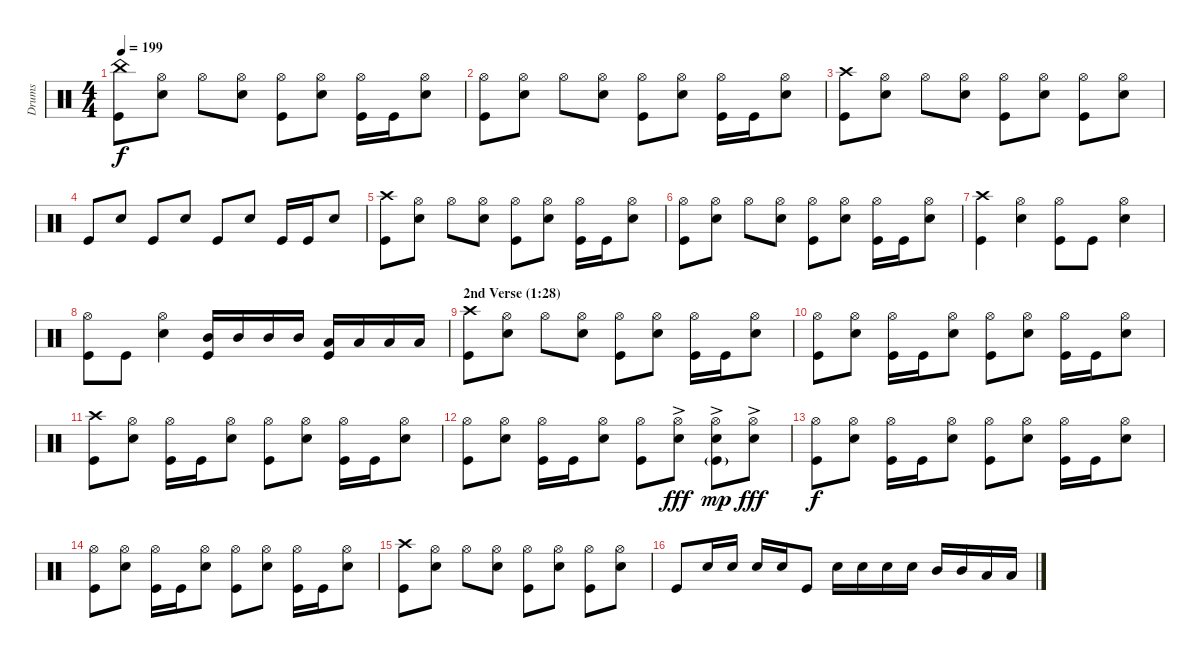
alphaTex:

\track ("Drums" "Drums") {instrument percussion}
\staff {score}
\articulation defaults
\ts (4 4)
\tempo 199
\clef neutral
\ks c
("China (hit)" "Kick (hit)").8{dy f} ("Hi-Hat (open)" "Snare (hit) 2").8 "Hi-Hat (open)".8 ("Hi-Hat (open)" "Snare (hit) 2").8 ("Hi-Hat (open)" "Kick (hit)").8 ("Hi-Hat (open)" "Snare (hit) 2").8 ("Hi-Hat (open)" "Kick (hit)").16 "Kick (hit)".16 ("Hi-Hat (open)" "Snare (hit) 2").8 |
("Hi-Hat (open)" "Kick (hit)").8 ("Hi-Hat (open)" "Snare (hit) 2").8 "Hi-Hat (open)".8 ("Hi-Hat (open)" "Snare (hit) 2").8 ("Hi-Hat (open)" "Kick (hit)").8 ("Hi-Hat (open)" "Snare (hit) 2").8 ("Hi-Hat (open)" "Kick (hit)").16 "Kick (hit)".16 ("Hi-Hat (open)" "Snare (hit) 2").8 |
("Crash high (hit)" "Kick (hit)").8 ("Hi-Hat (open)" "Snare (hit) 2").8 "Hi-Hat (open)".8 ("Hi-Hat (open)" "Snare (hit) 2").8 ("Hi-Hat (open)" "Kick (hit)").8 ("Hi-Hat (open)" "Snare (hit) 2").8 ("Hi-Hat (open)" "Kick (hit)").8 ("Hi-Hat (open)" "Snare (hit) 2").8 |
"Kick (hit)".8 "Snare (hit) 2".8 "Kick (hit)".8 "Snare (hit) 2".8 "Kick (hit)".8 "Snare (hit) 2".8 "Kick (hit)".16 "Kick (hit)".16 "Snare (hit) 2".8 |
("Crash high (hit)" "Kick (hit)").8 ("Hi-Hat (open)" "Snare (hit) 2").8 "Hi-Hat (open)".8 ("Hi-Hat (open)" "Snare (hit) 2").8 ("Hi-Hat (open)" "Kick (hit)").8 ("Hi-Hat (open)" "Snare (hit) 2").8 ("Hi-Hat (open)" "Kick (hit)").16 "Kick (hit)".16 ("Hi-Hat (open)" "Snare (hit) 2").8 |
("Hi-Hat (open)" "Kick (hit)").8 ("Hi-Hat (open)" "Snare (hit) 2").8 "Hi-Hat (open)".8 ("Hi-Hat (open)" "Snare (hit) 2").8 ("Hi-Hat (open)" "Kick (hit)").8 ("Hi-Hat (open)" "Snare (hit) 2").8 ("Hi-Hat (open)" "Kick (hit)").16 "Kick (hit)".16 ("Hi-Hat (open)" "Snare (hit) 2").8 |
("Crash high (hit)" "Kick (hit)").4 ("Hi-Hat (open)" "Snare (hit) 2").4 ("Hi-Hat (open)" "Kick (hit)").8 "Kick (hit)".8 ("Hi-Hat (open)" "Snare (hit) 2").4 |
("Hi-Hat (open)" "Kick (hit)").8 "Kick (hit)".8 ("Hi-Hat (open)" "Snare (hit) 2").4 ("Mid Tom (hit)" "Kick (hit)").16 "Mid Tom (hit)".16 "Mid Tom (hit)".16 "Mid Tom (hit)".16 ("Low Tom (hit)" "Kick (hit)").16 "Low Tom (hit)".16 "Low Tom (hit)".16 "Low Tom (hit)".16 |
\section ("" "2nd Verse (1:28)")
("Crash high (hit)" "Kick (hit)").8 ("Hi-Hat (open)" "Snare (hit) 2").8 "Hi-Hat (open)".8 ("Hi-Hat (open)" "Snare (hit) 2").8 ("Hi-Hat (open)" "Kick (hit)").8 ("Hi-Hat (open)" "Snare (hit) 2").8 ("Hi-Hat (open)" "Kick (hit)").16 "Kick (hit)".16 ("Hi-Hat (open)" "Snare (hit) 2").8 |
("Hi-Hat (open)" "Kick (hit)").8 ("Hi-Hat (open)" "Snare (hit) 2").8 ("Hi-Hat (open)" "Kick (hit)").16 "Kick (hit)".16 ("Hi-Hat (open)" "Snare (hit) 2").8 ("Hi-Hat (open)" "Kick (hit)").8 ("Hi-Hat (open)" "Snare (hit) 2").8 ("Hi-Hat (open)" "Kick (hit)").16 "Kick (hit)".16 ("Hi-Hat (open)" "Snare (hit) 2").8 |
("Crash high (hit)" "Kick (hit)").8 ("Hi-Hat (open)" "Snare (hit) 2").8 ("Hi-Hat (open)" "Kick (hit)").16 "Kick (hit)".16 ("Hi-Hat (open)" "Snare (hit) 2").8 ("Hi-Hat (open)" "Kick (hit)").8 ("Hi-Hat (open)" "Snare (hit) 2").8 ("Hi-Hat (open)" "Kick (hit)").16 "Kick (hit)".16 ("Hi-Hat (open)" "Snare (hit) 2").8 |
("Hi-Hat (open)" "Kick (hit)").8 ("Hi-Hat (open)" "Snare (hit) 2").8 ("Hi-Hat (open)" "Kick (hit)").16 "Kick (hit)".16 ("Hi-Hat (open)" "Snare (hit) 2").8 ("Hi-Hat (open)" "Kick (hit)").8 ("Hi-Hat (open)"{ac} "Snare (hit) 2"{ac}).8{dy fff} ("Hi-Hat (open)"{ac} "Snare (hit) 2"{ac} "Kick (hit)"{g}).8{dy mp} ("Hi-Hat (open)"{ac} "Snare (hit) 2"{ac}).8{dy fff} |
("Hi-Hat (open)" "Kick (hit)").8{dy f} ("Hi-Hat (open)" "Snare (hit) 2").8 ("Hi-Hat (open)" "Kick (hit)").16 "Kick (hit)".16 ("Hi-Hat (open)" "Snare (hit) 2").8 ("Hi-Hat (open)" "Kick (hit)").8 ("Hi-Hat (open)" "Snare (hit) 2").8 ("Hi-Hat (open)" "Kick (hit)").16 "Kick (hit)".16 ("Hi-Hat (open)" "Snare (hit) 2").8 |
("Hi-Hat (open)" "Kick (hit)").8 ("Hi-Hat (open)" "Snare (hit) 2").8 ("Hi-Hat (open)" "Kick (hit)").16 "Kick (hit)".16 ("Hi-Hat (open)" "Snare (hit) 2").8 ("Hi-Hat (open)" "Kick (hit)").8 ("Hi-Hat (open)" "Snare (hit) 2").8 ("Hi-Hat (open)" "Kick (hit)").16 "Kick (hit)".16 ("Hi-Hat (open)" "Snare (hit) 2").8 |
("Crash high (hit)" "Kick (hit)").8 ("Hi-Hat (open)" "Snare (hit) 2").8 "Hi-Hat (open)".8 ("Hi-Hat (open)" "Snare (hit) 2").8 ("Hi-Hat (open)" "Kick (hit)").8 ("Hi-Hat (open)" "Snare (hit) 2").8 ("Hi-Hat (open)" "Kick (hit)").8 ("Hi-Hat (open)" "Snare (hit) 2").8 |
"Kick (hit)".8 "Snare (hit) 2".16 "Snare (hit) 2".16 "Snare (hit) 2".16 "Snare (hit) 2".16 "Kick (hit)".8 "Snare (hit) 2".16 "Snare (hit) 2".16 "Snare (hit) 2".16 "Snare (hit) 2".16 "Mid Tom (hit)".16 "Mid Tom (hit)".16 "Low Tom (hit)".16 "Low Tom (hit)".16
